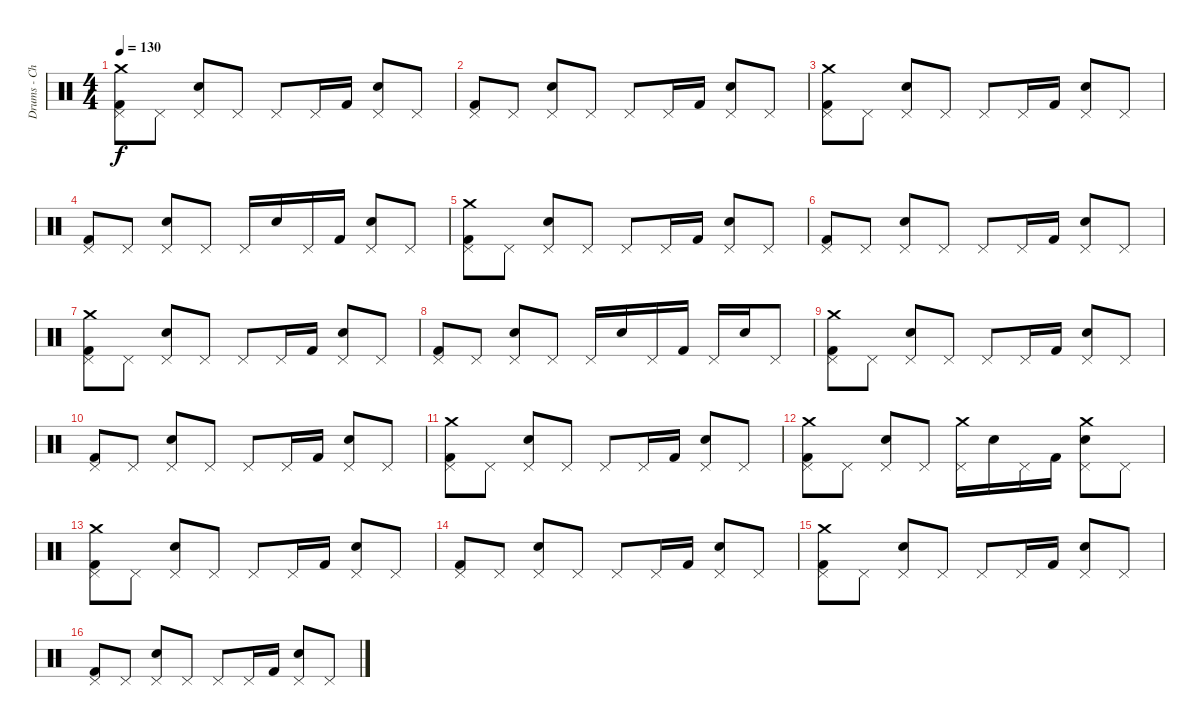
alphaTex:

\track ("Drums - Christoph Schneider" "Drums - Ch") {instrument percussion}
\staff {score}
\articulation defaults
\ts (4 4)
\tempo 130
\clef neutral
\ks c
("Crash medium (hit)" "Pedal Hi-Hat (hit)" "Kick (hit) 2").8{dy f} "Pedal Hi-Hat (hit)".8 ("Pedal Hi-Hat (hit)" "Electric Snare (hit)").8 "Pedal Hi-Hat (hit)".8 "Pedal Hi-Hat (hit)".8 "Pedal Hi-Hat (hit)".16 "Kick (hit) 2".16 ("Pedal Hi-Hat (hit)" "Electric Snare (hit)").8 "Pedal Hi-Hat (hit)".8 |
("Pedal Hi-Hat (hit)" "Kick (hit) 2").8 "Pedal Hi-Hat (hit)".8 ("Pedal Hi-Hat (hit)" "Electric Snare (hit)").8 "Pedal Hi-Hat (hit)".8 "Pedal Hi-Hat (hit)".8 "Pedal Hi-Hat (hit)".16 "Kick (hit) 2".16 ("Pedal Hi-Hat (hit)" "Electric Snare (hit)").8 "Pedal Hi-Hat (hit)".8 |
("Crash medium (hit)" "Pedal Hi-Hat (hit)" "Kick (hit) 2").8 "Pedal Hi-Hat (hit)".8 ("Pedal Hi-Hat (hit)" "Electric Snare (hit)").8 "Pedal Hi-Hat (hit)".8 "Pedal Hi-Hat (hit)".8 "Pedal Hi-Hat (hit)".16 "Kick (hit) 2".16 ("Pedal Hi-Hat (hit)" "Electric Snare (hit)").8 "Pedal Hi-Hat (hit)".8 |
("Pedal Hi-Hat (hit)" "Kick (hit) 2").8 "Pedal Hi-Hat (hit)".8 ("Pedal Hi-Hat (hit)" "Electric Snare (hit)").8 "Pedal Hi-Hat (hit)".8 "Pedal Hi-Hat (hit)".16 "Electric Snare (hit)".16 "Pedal Hi-Hat (hit)".16 "Kick (hit) 2".16 ("Pedal Hi-Hat (hit)" "Electric Snare (hit)").8 "Pedal Hi-Hat (hit)".8 |
("Crash medium (hit)" "Pedal Hi-Hat (hit)" "Kick (hit) 2").8 "Pedal Hi-Hat (hit)".8 ("Pedal Hi-Hat (hit)" "Electric Snare (hit)").8 "Pedal Hi-Hat (hit)".8 "Pedal Hi-Hat (hit)".8 "Pedal Hi-Hat (hit)".16 "Kick (hit) 2".16 ("Pedal Hi-Hat (hit)" "Electric Snare (hit)").8 "Pedal Hi-Hat (hit)".8 |
("Pedal Hi-Hat (hit)" "Kick (hit) 2").8 "Pedal Hi-Hat (hit)".8 ("Pedal Hi-Hat (hit)" "Electric Snare (hit)").8 "Pedal Hi-Hat (hit)".8 "Pedal Hi-Hat (hit)".8 "Pedal Hi-Hat (hit)".16 "Kick (hit) 2".16 ("Pedal Hi-Hat (hit)" "Electric Snare (hit)").8 "Pedal Hi-Hat (hit)".8 |
("Crash medium (hit)" "Pedal Hi-Hat (hit)" "Kick (hit) 2").8 "Pedal Hi-Hat (hit)".8 ("Pedal Hi-Hat (hit)" "Electric Snare (hit)").8 "Pedal Hi-Hat (hit)".8 "Pedal Hi-Hat (hit)".8 "Pedal Hi-Hat (hit)".16 "Kick (hit) 2".16 ("Pedal Hi-Hat (hit)" "Electric Snare (hit)").8 "Pedal Hi-Hat (hit)".8 |
("Pedal Hi-Hat (hit)" "Kick (hit) 2").8 "Pedal Hi-Hat (hit)".8 ("Pedal Hi-Hat (hit)" "Electric Snare (hit)").8 "Pedal Hi-Hat (hit)".8 "Pedal Hi-Hat (hit)".16 "Electric Snare (hit)".16 "Pedal Hi-Hat (hit)".16 "Kick (hit) 2".16 "Pedal Hi-Hat (hit)".16 "Electric Snare (hit)".16 "Pedal Hi-Hat (hit)".8 |
("Crash medium (hit)" "Pedal Hi-Hat (hit)" "Kick (hit) 2").8 "Pedal Hi-Hat (hit)".8 ("Pedal Hi-Hat (hit)" "Electric Snare (hit)").8 "Pedal Hi-Hat (hit)".8 "Pedal Hi-Hat (hit)".8 "Pedal Hi-Hat (hit)".16 "Kick (hit) 2".16 ("Pedal Hi-Hat (hit)" "Electric Snare (hit)").8 "Pedal Hi-Hat (hit)".8 |
("Pedal Hi-Hat (hit)" "Kick (hit) 2").8 "Pedal Hi-Hat (hit)".8 ("Pedal Hi-Hat (hit)" "Electric Snare (hit)").8 "Pedal Hi-Hat (hit)".8 "Pedal Hi-Hat (hit)".8 "Pedal Hi-Hat (hit)".16 "Kick (hit) 2".16 ("Pedal Hi-Hat (hit)" "Electric Snare (hit)").8 "Pedal Hi-Hat (hit)".8 |
("Crash medium (hit)" "Pedal Hi-Hat (hit)" "Kick (hit) 2").8 "Pedal Hi-Hat (hit)".8 ("Pedal Hi-Hat (hit)" "Electric Snare (hit)").8 "Pedal Hi-Hat (hit)".8 "Pedal Hi-Hat (hit)".8 "Pedal Hi-Hat (hit)".16 "Kick (hit) 2".16 ("Pedal Hi-Hat (hit)" "Electric Snare (hit)").8 "Pedal Hi-Hat (hit)".8 |
("Crash medium (hit)" "Pedal Hi-Hat (hit)" "Kick (hit) 2").8 "Pedal Hi-Hat (hit)".8 ("Pedal Hi-Hat (hit)" "Electric Snare (hit)").8 "Pedal Hi-Hat (hit)".8 ("Crash medium (hit)" "Pedal Hi-Hat (hit)").16 "Electric Snare (hit)".16 "Pedal Hi-Hat (hit)".16 "Kick (hit) 2".16 ("Crash medium (hit)" "Pedal Hi-Hat (hit)" "Electric Snare (hit)").8 "Pedal Hi-Hat (hit)".8 |
("Crash medium (hit)" "Pedal Hi-Hat (hit)" "Kick (hit) 2").8 "Pedal Hi-Hat (hit)".8 ("Pedal Hi-Hat (hit)" "Electric Snare (hit)").8 "Pedal Hi-Hat (hit)".8 "Pedal Hi-Hat (hit)".8 "Pedal Hi-Hat (hit)".16 "Kick (hit) 2".16 ("Pedal Hi-Hat (hit)" "Electric Snare (hit)").8 "Pedal Hi-Hat (hit)".8 |
("Pedal Hi-Hat (hit)" "Kick (hit) 2").8 "Pedal Hi-Hat (hit)".8 ("Pedal Hi-Hat (hit)" "Electric Snare (hit)").8 "Pedal Hi-Hat (hit)".8 "Pedal Hi-Hat (hit)".8 "Pedal Hi-Hat (hit)".16 "Kick (hit) 2".16 ("Pedal Hi-Hat (hit)" "Electric Snare (hit)").8 "Pedal Hi-Hat (hit)".8 |
("Crash medium (hit)" "Pedal Hi-Hat (hit)" "Kick (hit) 2").8 "Pedal Hi-Hat (hit)".8 ("Pedal Hi-Hat (hit)" "Electric Snare (hit)").8 "Pedal Hi-Hat (hit)".8 "Pedal Hi-Hat (hit)".8 "Pedal Hi-Hat (hit)".16 "Kick (hit) 2".16 ("Pedal Hi-Hat (hit)" "Electric Snare (hit)").8 "Pedal Hi-Hat (hit)".8 |
("Pedal Hi-Hat (hit)" "Kick (hit) 2").8 "Pedal Hi-Hat (hit)".8 ("Pedal Hi-Hat (hit)" "Electric Snare (hit)").8 "Pedal Hi-Hat (hit)".8 "Pedal Hi-Hat (hit)".8 "Pedal Hi-Hat (hit)".16 "Kick (hit) 2".16 ("Pedal Hi-Hat (hit)" "Electric Snare (hit)").8 "Pedal Hi-Hat (hit)".8
